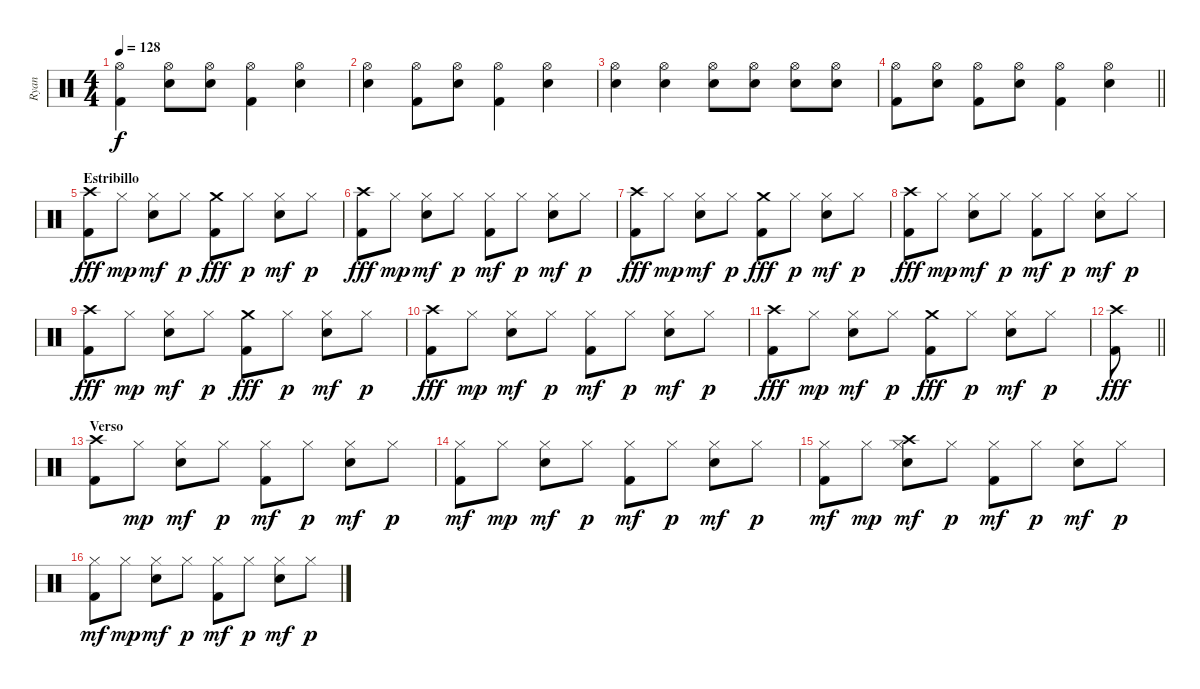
\track ("Ryan" "Ryan") {instrument percussion}
\staff {score}
\articulation defaults
\ts (4 4)
\tempo 128
\clef neutral
\ks c
("Hi-Hat (open)" "Kick (hit) 2").4{dy f} ("Hi-Hat (open)" "Snare (hit) 2").8 ("Hi-Hat (open)" "Snare (hit) 2").8 ("Hi-Hat (open)" "Kick (hit) 2").4 ("Hi-Hat (open)" "Snare (hit) 2").4 |
("Hi-Hat (open)" "Snare (hit) 2").4 ("Hi-Hat (open)" "Kick (hit) 2").8 ("Hi-Hat (open)" "Snare (hit) 2").8 ("Hi-Hat (open)" "Kick (hit) 2").4 ("Hi-Hat (open)" "Snare (hit) 2").4 |
("Hi-Hat (open)" "Snare (hit) 2").4 ("Hi-Hat (open)" "Snare (hit) 2").4 ("Hi-Hat (open)" "Snare (hit) 2").8 ("Hi-Hat (open)" "Snare (hit) 2").8 ("Hi-Hat (open)" "Snare (hit) 2").8 ("Hi-Hat (open)" "Snare (hit) 2").8 |
\barLineRight lightlight
("Hi-Hat (open)" "Kick (hit) 2").8 ("Hi-Hat (open)" "Snare (hit) 2").8 ("Hi-Hat (open)" "Kick (hit) 2").8 ("Hi-Hat (open)" "Snare (hit) 2").8 ("Hi-Hat (open)" "Kick (hit) 2").4 ("Hi-Hat (open)" "Snare (hit) 2").4 |
\section ("" "Estribillo")
("Kick (hit) 2" "Crash high (hit)").8{dy fff} "Hi-Hat (closed)".8{dy mp} ("Snare (hit) 2" "Hi-Hat (closed)").8{dy mf} "Hi-Hat (closed)".8{dy p} ("Kick (hit) 2" "Crash medium (hit)").8{dy fff} "Hi-Hat (closed)".8{dy p} ("Snare (hit) 2" "Hi-Hat (closed)").8{dy mf} "Hi-Hat (closed)".8{dy p} |
("Kick (hit) 2" "Crash high (hit)").8{dy fff} "Hi-Hat (closed)".8{dy mp} ("Snare (hit) 2" "Hi-Hat (closed)").8{dy mf} "Hi-Hat (closed)".8{dy p} ("Kick (hit) 2" "Hi-Hat (closed)").8{dy mf} "Hi-Hat (closed)".8{dy p} ("Snare (hit) 2" "Hi-Hat (closed)").8{dy mf} "Hi-Hat (closed)".8{dy p} |
("Kick (hit) 2" "Crash high (hit)").8{dy fff} "Hi-Hat (closed)".8{dy mp} ("Snare (hit) 2" "Hi-Hat (closed)").8{dy mf} "Hi-Hat (closed)".8{dy p} ("Kick (hit) 2" "Crash medium (hit)").8{dy fff} "Hi-Hat (closed)".8{dy p} ("Snare (hit) 2" "Hi-Hat (closed)").8{dy mf} "Hi-Hat (closed)".8{dy p} |
("Kick (hit) 2" "Crash high (hit)").8{dy fff} "Hi-Hat (closed)".8{dy mp} ("Snare (hit) 2" "Hi-Hat (closed)").8{dy mf} "Hi-Hat (closed)".8{dy p} ("Kick (hit) 2" "Hi-Hat (closed)").8{dy mf} "Hi-Hat (closed)".8{dy p} ("Snare (hit) 2" "Hi-Hat (closed)").8{dy mf} "Hi-Hat (closed)".8{dy p} |
("Kick (hit) 2" "Crash high (hit)").8{dy fff} "Hi-Hat (closed)".8{dy mp} ("Snare (hit) 2" "Hi-Hat (closed)").8{dy mf} "Hi-Hat (closed)".8{dy p} ("Kick (hit) 2" "Crash medium (hit)").8{dy fff} "Hi-Hat (closed)".8{dy p} ("Snare (hit) 2" "Hi-Hat (closed)").8{dy mf} "Hi-Hat (closed)".8{dy p} |
("Kick (hit) 2" "Crash high (hit)").8{dy fff} "Hi-Hat (closed)".8{dy mp} ("Snare (hit) 2" "Hi-Hat (closed)").8{dy mf} "Hi-Hat (closed)".8{dy p} ("Kick (hit) 2" "Hi-Hat (closed)").8{dy mf} "Hi-Hat (closed)".8{dy p} ("Snare (hit) 2" "Hi-Hat (closed)").8{dy mf} "Hi-Hat (closed)".8{dy p} |
("Kick (hit) 2" "Crash high (hit)").8{dy fff} "Hi-Hat (closed)".8{dy mp} ("Snare (hit) 2" "Hi-Hat (closed)").8{dy mf} "Hi-Hat (closed)".8{dy p} ("Kick (hit) 2" "Crash medium (hit)").8{dy fff} "Hi-Hat (closed)".8{dy p} ("Snare (hit) 2" "Hi-Hat (closed)").8{dy mf} "Hi-Hat (closed)".8{dy p} |
\barLineRight lightlight
("Kick (hit) 2" "Crash high (hit)").8{dy fff} |
\section ("" "Verso")
("Kick (hit) 2" "Crash high (hit)").8 "Hi-Hat (closed)".8{dy mp} ("Snare (hit) 2" "Hi-Hat (closed)").8{dy mf} "Hi-Hat (closed)".8{dy p} ("Kick (hit) 2" "Hi-Hat (closed)").8{dy mf} "Hi-Hat (closed)".8{dy p} ("Snare (hit) 2" "Hi-Hat (closed)").8{dy mf} "Hi-Hat (closed)".8{dy p} |
("Kick (hit) 2" "Hi-Hat (closed)").8{dy mf} "Hi-Hat (closed)".8{dy mp} ("Snare (hit) 2" "Hi-Hat (closed)").8{dy mf} "Hi-Hat (closed)".8{dy p} ("Kick (hit) 2" "Hi-Hat (closed)").8{dy mf} "Hi-Hat (closed)".8{dy p} ("Snare (hit) 2" "Hi-Hat (closed)").8{dy mf} "Hi-Hat (closed)".8{dy p} |
("Kick (hit) 2" "Hi-Hat (closed)").8{dy mf} "Hi-Hat (closed)".8{dy mp} ("Snare (hit) 2" "Hi-Hat (closed)" "Crash high (hit)").8{dy mf} "Hi-Hat (closed)".8{dy p} ("Kick (hit) 2" "Hi-Hat (closed)").8{dy mf} "Hi-Hat (closed)".8{dy p} ("Snare (hit) 2" "Hi-Hat (closed)").8{dy mf} "Hi-Hat (closed)".8{dy p} |
("Kick (hit) 2" "Hi-Hat (closed)").8{dy mf} "Hi-Hat (closed)".8{dy mp} ("Snare (hit) 2" "Hi-Hat (closed)").8{dy mf} "Hi-Hat (closed)".8{dy p} ("Kick (hit) 2" "Hi-Hat (closed)").8{dy mf} "Hi-Hat (closed)".8{dy p} ("Snare (hit) 2" "Hi-Hat (closed)").8{dy mf} "Hi-Hat (closed)".8{dy p}
